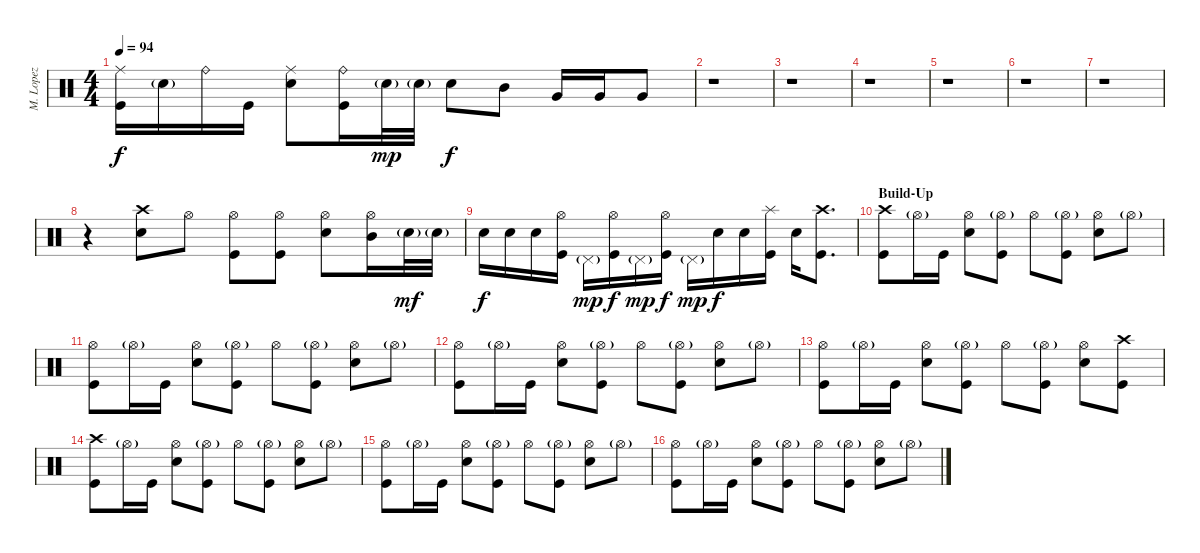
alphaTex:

\track ("M. Lopez" "M. Lopez") {instrument percussion}
\staff {score}
\articulation defaults
\ts (4 4)
\tempo 94
\clef neutral
\ks c
("Ride (middle)" "Kick (hit)").16{dy f} "Electric Snare (hit)"{g}.16 "Ride (bell)".16 "Kick (hit)".16 ("Ride (middle)" "Electric Snare (hit)").8 ("Ride (bell)" "Kick (hit)").16 "Electric Snare (hit)"{g}.32{dy mp} "Electric Snare (hit)"{g}.32 "Electric Snare (hit)".8{dy f} "Mid Tom (hit)".8 "Very Low Tom (hit)".16 "Very Low Tom (hit)".16 "Very Low Tom (hit)".8 |
r.1 |
r.1 |
r.1 |
r.1 |
r.1 |
r.1 |
r.4 ("Crash high (hit)" "Electric Snare (hit)").8 "Hi-Hat (open)".8 ("Hi-Hat (open)" "Kick (hit)").8 ("Hi-Hat (open)" "Kick (hit)").8 ("Hi-Hat (open)" "Electric Snare (hit)").8 ("Hi-Hat (open)" "Mid Tom (hit)").16 "Electric Snare (hit)"{g}.32{dy mf} "Electric Snare (hit)"{g}.32 |
"Electric Snare (hit)".16{dy f} "Electric Snare (hit)".16 "Electric Snare (hit)".16 ("Hi-Hat (open)" "Kick (hit)").16 "Pedal Hi-Hat (hit)"{g}.16{dy mp} ("Hi-Hat (open)" "Kick (hit)").16{dy f} "Pedal Hi-Hat (hit)"{g}.16{dy mp} ("Hi-Hat (open)" "Kick (hit)").16{dy f} "Pedal Hi-Hat (hit)"{g}.16{dy mp} "Electric Snare (hit)".16{dy f} "Electric Snare (hit)".16 ("Splash (hit)" "Kick (hit)").16 "Electric Snare (hit)".16 ("Crash high (hit)" "Kick (hit)").8{d} |
\section ("" "Build-Up")
("Crash high (hit)" "Kick (hit)").8 "Hi-Hat (open)"{g}.16 "Kick (hit)".16 ("Hi-Hat (open)" "Electric Snare (hit)").8 ("Hi-Hat (open)"{g} "Kick (hit)").8 "Hi-Hat (open)".8 ("Hi-Hat (open)"{g} "Kick (hit)").8 ("Hi-Hat (open)" "Electric Snare (hit)").8 "Hi-Hat (open)"{g}.8 |
("Hi-Hat (open)" "Kick (hit)").8 "Hi-Hat (open)"{g}.16 "Kick (hit)".16 ("Hi-Hat (open)" "Electric Snare (hit)").8 ("Hi-Hat (open)"{g} "Kick (hit)").8 "Hi-Hat (open)".8 ("Hi-Hat (open)"{g} "Kick (hit)").8 ("Hi-Hat (open)" "Electric Snare (hit)").8 "Hi-Hat (open)"{g}.8 |
("Hi-Hat (open)" "Kick (hit)").8 "Hi-Hat (open)"{g}.16 "Kick (hit)".16 ("Hi-Hat (open)" "Electric Snare (hit)").8 ("Hi-Hat (open)"{g} "Kick (hit)").8 "Hi-Hat (open)".8 ("Hi-Hat (open)"{g} "Kick (hit)").8 ("Hi-Hat (open)" "Electric Snare (hit)").8 "Hi-Hat (open)"{g}.8 |
("Hi-Hat (open)" "Kick (hit)").8 "Hi-Hat (open)"{g}.16 "Kick (hit)".16 ("Hi-Hat (open)" "Electric Snare (hit)").8 ("Hi-Hat (open)"{g} "Kick (hit)").8 "Hi-Hat (open)".8 ("Hi-Hat (open)"{g} "Kick (hit)").8 ("Hi-Hat (open)" "Electric Snare (hit)").8 ("Crash high (hit)" "Kick (hit)").8 |
("Crash high (hit)" "Kick (hit)").8 "Hi-Hat (open)"{g}.16 "Kick (hit)".16 ("Hi-Hat (open)" "Electric Snare (hit)").8 ("Hi-Hat (open)"{g} "Kick (hit)").8 "Hi-Hat (open)".8 ("Hi-Hat (open)"{g} "Kick (hit)").8 ("Hi-Hat (open)" "Electric Snare (hit)").8 "Hi-Hat (open)"{g}.8 |
("Hi-Hat (open)" "Kick (hit)").8 "Hi-Hat (open)"{g}.16 "Kick (hit)".16 ("Hi-Hat (open)" "Electric Snare (hit)").8 ("Hi-Hat (open)"{g} "Kick (hit)").8 "Hi-Hat (open)".8 ("Hi-Hat (open)"{g} "Kick (hit)").8 ("Hi-Hat (open)" "Electric Snare (hit)").8 "Hi-Hat (open)"{g}.8 |
("Hi-Hat (open)" "Kick (hit)").8 "Hi-Hat (open)"{g}.16 "Kick (hit)".16 ("Hi-Hat (open)" "Electric Snare (hit)").8 ("Hi-Hat (open)"{g} "Kick (hit)").8 "Hi-Hat (open)".8 ("Hi-Hat (open)"{g} "Kick (hit)").8 ("Hi-Hat (open)" "Electric Snare (hit)").8 "Hi-Hat (open)"{g}.8
